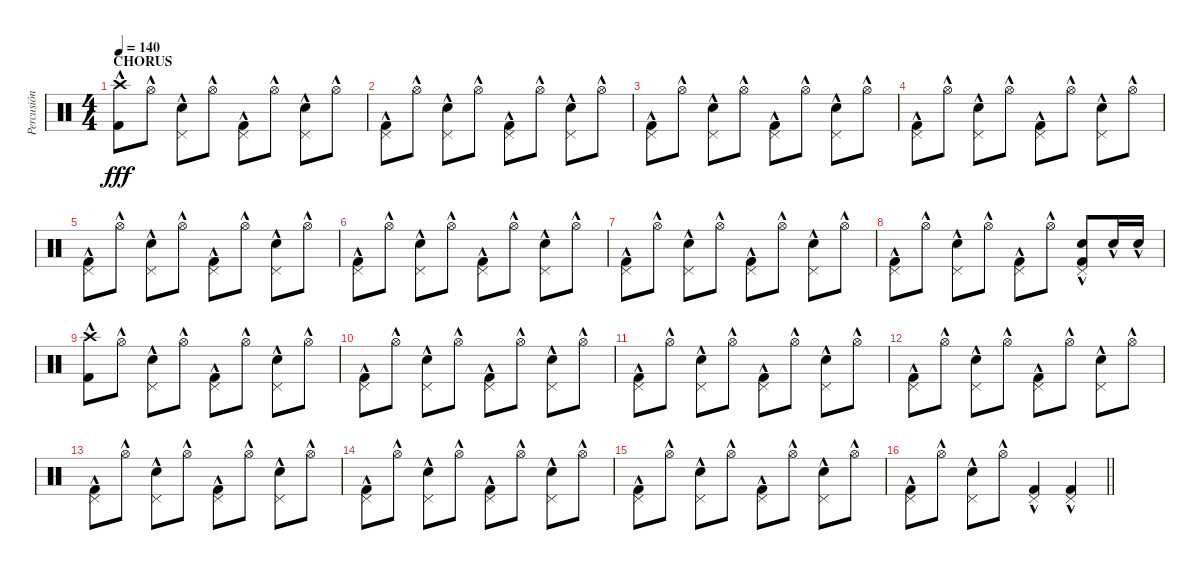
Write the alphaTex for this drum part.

\track ("Percusión" "Percusión") {instrument percussion}
\staff {score}
\articulation defaults
\ts (4 4)
\section ("" "CHORUS")
\tempo 140
\clef neutral
\ks c
("Crash high (hit)"{hac} "Kick (hit) 2"{hac}).8{dy fff} "Hi-Hat (open)"{hac}.8 ("Snare (hit) 2"{hac} "Pedal Hi-Hat (hit)"{hac}).8 "Hi-Hat (open)"{hac}.8 ("Kick (hit) 2"{hac} "Pedal Hi-Hat (hit)"{hac}).8 "Hi-Hat (open)"{hac}.8 ("Snare (hit) 2"{hac} "Pedal Hi-Hat (hit)"{hac}).8 "Hi-Hat (open)"{hac}.8 |
("Kick (hit) 2"{hac} "Pedal Hi-Hat (hit)"{hac}).8 "Hi-Hat (open)"{hac}.8 ("Snare (hit) 2"{hac} "Pedal Hi-Hat (hit)"{hac}).8 "Hi-Hat (open)"{hac}.8 ("Kick (hit) 2"{hac} "Pedal Hi-Hat (hit)"{hac}).8 "Hi-Hat (open)"{hac}.8 ("Snare (hit) 2"{hac} "Pedal Hi-Hat (hit)"{hac}).8 "Hi-Hat (open)"{hac}.8 |
("Kick (hit) 2"{hac} "Pedal Hi-Hat (hit)"{hac}).8 "Hi-Hat (open)"{hac}.8 ("Snare (hit) 2"{hac} "Pedal Hi-Hat (hit)"{hac}).8 "Hi-Hat (open)"{hac}.8 ("Kick (hit) 2"{hac} "Pedal Hi-Hat (hit)"{hac}).8 "Hi-Hat (open)"{hac}.8 ("Snare (hit) 2"{hac} "Pedal Hi-Hat (hit)"{hac}).8 "Hi-Hat (open)"{hac}.8 |
("Kick (hit) 2"{hac} "Pedal Hi-Hat (hit)"{hac}).8 "Hi-Hat (open)"{hac}.8 ("Snare (hit) 2"{hac} "Pedal Hi-Hat (hit)"{hac}).8 "Hi-Hat (open)"{hac}.8 ("Kick (hit) 2"{hac} "Pedal Hi-Hat (hit)"{hac}).8 "Hi-Hat (open)"{hac}.8 ("Snare (hit) 2"{hac} "Pedal Hi-Hat (hit)"{hac}).8 "Hi-Hat (open)"{hac}.8 |
("Kick (hit) 2"{hac} "Pedal Hi-Hat (hit)"{hac}).8 "Hi-Hat (open)"{hac}.8 ("Snare (hit) 2"{hac} "Pedal Hi-Hat (hit)"{hac}).8 "Hi-Hat (open)"{hac}.8 ("Kick (hit) 2"{hac} "Pedal Hi-Hat (hit)"{hac}).8 "Hi-Hat (open)"{hac}.8 ("Snare (hit) 2"{hac} "Pedal Hi-Hat (hit)"{hac}).8 "Hi-Hat (open)"{hac}.8 |
("Kick (hit) 2"{hac} "Pedal Hi-Hat (hit)"{hac}).8 "Hi-Hat (open)"{hac}.8 ("Snare (hit) 2"{hac} "Pedal Hi-Hat (hit)"{hac}).8 "Hi-Hat (open)"{hac}.8 ("Kick (hit) 2"{hac} "Pedal Hi-Hat (hit)"{hac}).8 "Hi-Hat (open)"{hac}.8 ("Snare (hit) 2"{hac} "Pedal Hi-Hat (hit)"{hac}).8 "Hi-Hat (open)"{hac}.8 |
("Kick (hit) 2"{hac} "Pedal Hi-Hat (hit)"{hac}).8 "Hi-Hat (open)"{hac}.8 ("Snare (hit) 2"{hac} "Pedal Hi-Hat (hit)"{hac}).8 "Hi-Hat (open)"{hac}.8 ("Kick (hit) 2"{hac} "Pedal Hi-Hat (hit)"{hac}).8 "Hi-Hat (open)"{hac}.8 ("Snare (hit) 2"{hac} "Pedal Hi-Hat (hit)"{hac}).8 "Hi-Hat (open)"{hac}.8 |
("Kick (hit) 2"{hac} "Pedal Hi-Hat (hit)"{hac}).8 "Hi-Hat (open)"{hac}.8 ("Snare (hit) 2"{hac} "Pedal Hi-Hat (hit)"{hac}).8 "Hi-Hat (open)"{hac}.8 ("Kick (hit) 2"{hac} "Pedal Hi-Hat (hit)"{hac}).8 "Hi-Hat (open)"{hac}.8 ("Snare (hit) 2"{hac} "Kick (hit) 2"{hac} "Pedal Hi-Hat (hit)"{hac}).8 "Snare (hit) 2"{hac}.16 "Snare (hit) 2"{hac}.16 |
("Crash high (hit)"{hac} "Kick (hit) 2"{hac}).8 "Hi-Hat (open)"{hac}.8 ("Snare (hit) 2"{hac} "Pedal Hi-Hat (hit)"{hac}).8 "Hi-Hat (open)"{hac}.8 ("Kick (hit) 2"{hac} "Pedal Hi-Hat (hit)"{hac}).8 "Hi-Hat (open)"{hac}.8 ("Snare (hit) 2"{hac} "Pedal Hi-Hat (hit)"{hac}).8 "Hi-Hat (open)"{hac}.8 |
("Kick (hit) 2"{hac} "Pedal Hi-Hat (hit)"{hac}).8 "Hi-Hat (open)"{hac}.8 ("Snare (hit) 2"{hac} "Pedal Hi-Hat (hit)"{hac}).8 "Hi-Hat (open)"{hac}.8 ("Kick (hit) 2"{hac} "Pedal Hi-Hat (hit)"{hac}).8 "Hi-Hat (open)"{hac}.8 ("Snare (hit) 2"{hac} "Pedal Hi-Hat (hit)"{hac}).8 "Hi-Hat (open)"{hac}.8 |
("Kick (hit) 2"{hac} "Pedal Hi-Hat (hit)"{hac}).8 "Hi-Hat (open)"{hac}.8 ("Snare (hit) 2"{hac} "Pedal Hi-Hat (hit)"{hac}).8 "Hi-Hat (open)"{hac}.8 ("Kick (hit) 2"{hac} "Pedal Hi-Hat (hit)"{hac}).8 "Hi-Hat (open)"{hac}.8 ("Snare (hit) 2"{hac} "Pedal Hi-Hat (hit)"{hac}).8 "Hi-Hat (open)"{hac}.8 |
("Kick (hit) 2"{hac} "Pedal Hi-Hat (hit)"{hac}).8 "Hi-Hat (open)"{hac}.8 ("Snare (hit) 2"{hac} "Pedal Hi-Hat (hit)"{hac}).8 "Hi-Hat (open)"{hac}.8 ("Kick (hit) 2"{hac} "Pedal Hi-Hat (hit)"{hac}).8 "Hi-Hat (open)"{hac}.8 ("Snare (hit) 2"{hac} "Pedal Hi-Hat (hit)"{hac}).8 "Hi-Hat (open)"{hac}.8 |
("Kick (hit) 2"{hac} "Pedal Hi-Hat (hit)"{hac}).8 "Hi-Hat (open)"{hac}.8 ("Snare (hit) 2"{hac} "Pedal Hi-Hat (hit)"{hac}).8 "Hi-Hat (open)"{hac}.8 ("Kick (hit) 2"{hac} "Pedal Hi-Hat (hit)"{hac}).8 "Hi-Hat (open)"{hac}.8 ("Snare (hit) 2"{hac} "Pedal Hi-Hat (hit)"{hac}).8 "Hi-Hat (open)"{hac}.8 |
("Kick (hit) 2"{hac} "Pedal Hi-Hat (hit)"{hac}).8 "Hi-Hat (open)"{hac}.8 ("Snare (hit) 2"{hac} "Pedal Hi-Hat (hit)"{hac}).8 "Hi-Hat (open)"{hac}.8 ("Kick (hit) 2"{hac} "Pedal Hi-Hat (hit)"{hac}).8 "Hi-Hat (open)"{hac}.8 ("Snare (hit) 2"{hac} "Pedal Hi-Hat (hit)"{hac}).8 "Hi-Hat (open)"{hac}.8 |
("Kick (hit) 2"{hac} "Pedal Hi-Hat (hit)"{hac}).8 "Hi-Hat (open)"{hac}.8 ("Snare (hit) 2"{hac} "Pedal Hi-Hat (hit)"{hac}).8 "Hi-Hat (open)"{hac}.8 ("Kick (hit) 2"{hac} "Pedal Hi-Hat (hit)"{hac}).8 "Hi-Hat (open)"{hac}.8 ("Snare (hit) 2"{hac} "Pedal Hi-Hat (hit)"{hac}).8 "Hi-Hat (open)"{hac}.8 |
\barLineRight lightlight
("Kick (hit) 2"{hac} "Pedal Hi-Hat (hit)"{hac}).8 "Hi-Hat (open)"{hac}.8 ("Snare (hit) 2"{hac} "Pedal Hi-Hat (hit)"{hac}).8 "Hi-Hat (open)"{hac}.8 ("Kick (hit) 2"{hac} "Pedal Hi-Hat (hit)"{hac}).4 ("Kick (hit) 2"{hac} "Pedal Hi-Hat (hit)"{hac}).4
